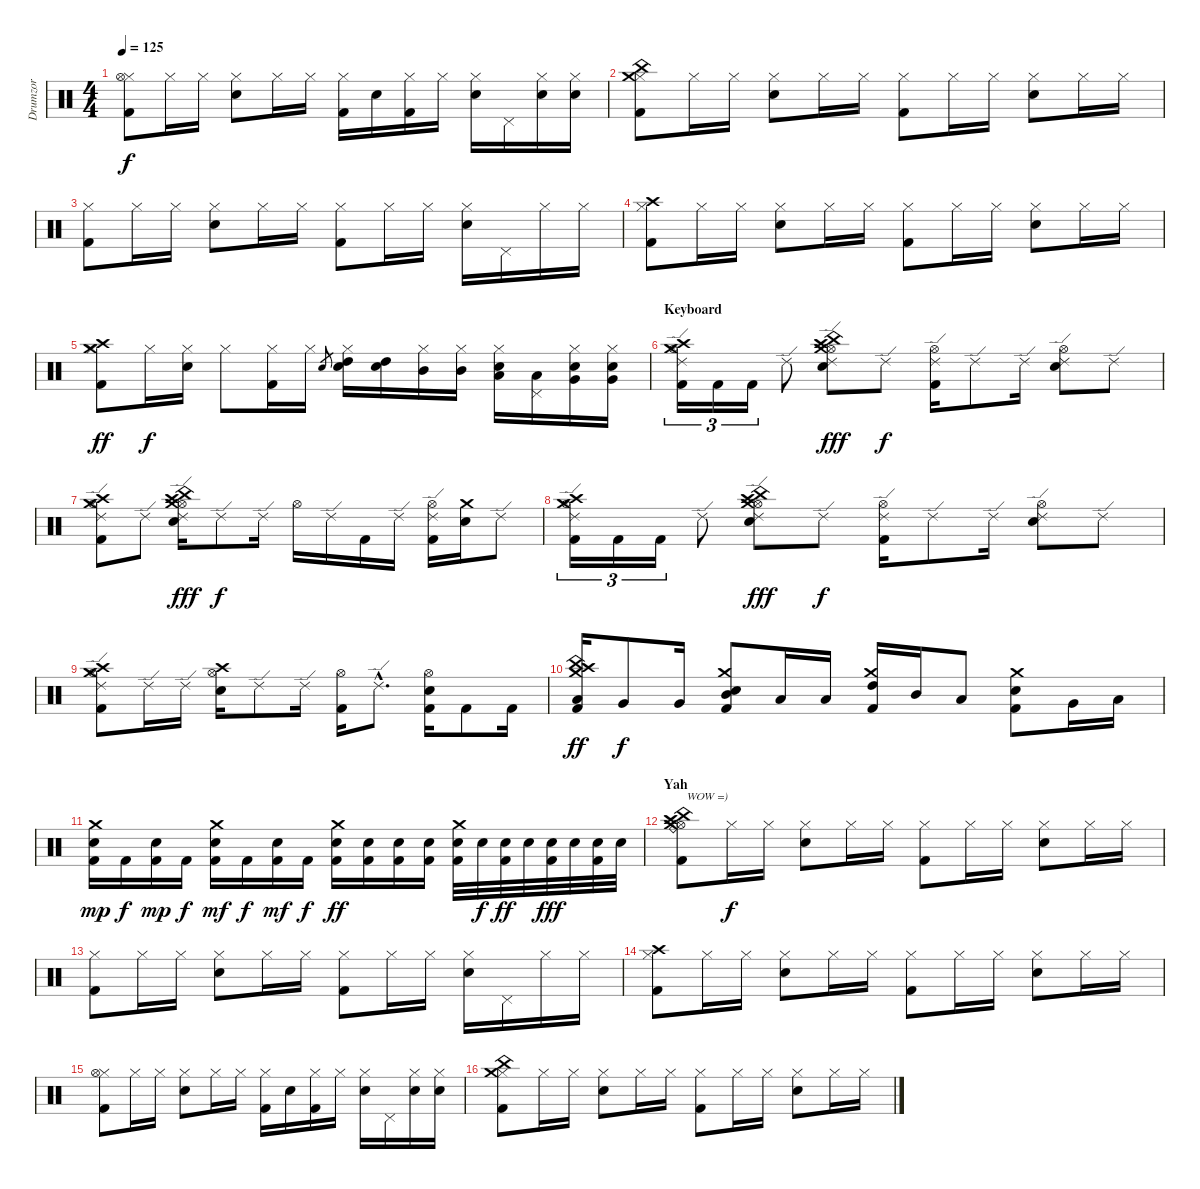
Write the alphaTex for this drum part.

\track ("Drumzor" "Drumzor") {instrument percussion}
\staff {score}
\articulation defaults
\ts (4 4)
\tempo 125
\clef neutral
\ks c
("Hi-Hat (closed)" "Hi-Hat (open)" "Kick (hit) 2").8{dy f} "Hi-Hat (closed)".16 "Hi-Hat (closed)".16 ("Hi-Hat (closed)" "Electric Snare (hit)").8 "Hi-Hat (closed)".16 "Hi-Hat (closed)".16 ("Hi-Hat (closed)" "Kick (hit) 2").16 "Electric Snare (hit)".16 ("Hi-Hat (closed)" "Kick (hit) 2").16 "Hi-Hat (closed)".16 ("Hi-Hat (closed)" "Electric Snare (hit)").16 "Pedal Hi-Hat (hit)".16 ("Hi-Hat (closed)" "Electric Snare (hit)").16 ("Hi-Hat (closed)" "Electric Snare (hit)").16 |
("Hi-Hat (closed)" "China (hit)" "Crash medium (hit)" "Kick (hit) 2").8 "Hi-Hat (closed)".16 "Hi-Hat (closed)".16 ("Hi-Hat (closed)" "Electric Snare (hit)").8 "Hi-Hat (closed)".16 "Hi-Hat (closed)".16 ("Hi-Hat (closed)" "Kick (hit) 2").8 "Hi-Hat (closed)".16 "Hi-Hat (closed)".16 ("Hi-Hat (closed)" "Electric Snare (hit)").8 "Hi-Hat (closed)".16 "Hi-Hat (closed)".16 |
("Hi-Hat (closed)" "Kick (hit) 2").8 "Hi-Hat (closed)".16 "Hi-Hat (closed)".16 ("Hi-Hat (closed)" "Electric Snare (hit)").8 "Hi-Hat (closed)".16 "Hi-Hat (closed)".16 ("Hi-Hat (closed)" "Kick (hit) 2").8 "Hi-Hat (closed)".16 "Hi-Hat (closed)".16 ("Hi-Hat (closed)" "Electric Snare (hit)").16 "Pedal Hi-Hat (hit)".16 "Hi-Hat (closed)".16 "Hi-Hat (closed)".16 |
("Hi-Hat (closed)" "Crash high (hit)" "Kick (hit) 2").8 "Hi-Hat (closed)".16 "Hi-Hat (closed)".16 ("Hi-Hat (closed)" "Electric Snare (hit)").8 "Hi-Hat (closed)".16 "Hi-Hat (closed)".16 ("Hi-Hat (closed)" "Kick (hit) 2").8 "Hi-Hat (closed)".16 "Hi-Hat (closed)".16 ("Hi-Hat (closed)" "Electric Snare (hit)").8 "Hi-Hat (closed)".16 "Hi-Hat (closed)".16 |
("Hi-Hat (closed)" "Crash medium (hit)" "Crash high (hit)" "Kick (hit) 2").8{dy ff} "Hi-Hat (closed)".16{dy f} ("Hi-Hat (closed)" "Electric Snare (hit)").16 "Hi-Hat (closed)".8 ("Hi-Hat (closed)" "Kick (hit) 2").16 "Hi-Hat (closed)".16 "Snare (hit) 2".8{gr} ("Hi-Hat (closed)" "High Tom (hit)" "Electric Snare (hit)").16 ("High Tom (hit)" "Electric Snare (hit)").16 ("Hi-Hat (closed)" "Mid Tom (hit)").16 ("Hi-Hat (closed)" "Mid Tom (hit)").16 ("Hi-Hat (closed)" "Low Tom (hit)" "Electric Snare (hit)").16 ("Pedal Hi-Hat (hit)" "Low Tom (hit)").16 ("Hi-Hat (closed)" "Very Low Tom (hit)" "Electric Snare (hit)").16 ("Hi-Hat (closed)" "Very Low Tom (hit)" "Electric Snare (hit)").16 |
\section ("" "Keyboard")
("Hi-Hat (open)" "Crash medium (hit)" "Crash high (hit)" "Ride (edge) 2" "Kick (hit) 2").16{tu (3 2)} "Kick (hit) 2".16{tu (3 2)} "Kick (hit) 2".16{tu (3 2)} "Ride (edge) 2".8 ("Hi-Hat (open)" "China (hit)" "Crash medium (hit)" "Ride (edge) 2" "Crash high (hit)" "Electric Snare (hit)").8{dy fff} "Ride (edge) 2".8{dy f} ("Hi-Hat (open)" "Ride (edge) 2" "Kick (hit) 2").16 "Ride (edge) 2".8 "Ride (edge) 2".16 ("Hi-Hat (open)" "Ride (edge) 2" "Electric Snare (hit)").8 "Ride (edge) 2".8 |
("Hi-Hat (open)" "Crash medium (hit)" "Crash high (hit)" "Ride (edge) 2" "Kick (hit) 2").8 "Ride (edge) 2".8 ("Hi-Hat (open)" "China (hit)" "Crash medium (hit)" "Ride (edge) 2" "Crash high (hit)" "Electric Snare (hit)").16{dy fff} "Ride (edge) 2".8{dy f} "Ride (edge) 2".16 "Hi-Hat (open)".16 "Ride (edge) 2".16 "Kick (hit) 2".16 "Ride (edge) 2".16 ("Hi-Hat (open)" "Ride (edge) 2" "Kick (hit) 2").16 ("Crash medium (hit)" "Electric Snare (hit)").16 "Ride (edge) 2".8 |
("Hi-Hat (open)" "Crash medium (hit)" "Crash high (hit)" "Ride (edge) 2" "Kick (hit) 2").16{tu (3 2)} "Kick (hit) 2".16{tu (3 2)} "Kick (hit) 2".16{tu (3 2)} "Ride (edge) 2".8 ("Hi-Hat (open)" "China (hit)" "Crash medium (hit)" "Ride (edge) 2" "Crash high (hit)" "Electric Snare (hit)").8{dy fff} "Ride (edge) 2".8{dy f} ("Hi-Hat (open)" "Ride (edge) 2" "Kick (hit) 2").16 "Ride (edge) 2".8 "Ride (edge) 2".16 ("Hi-Hat (open)" "Ride (edge) 2" "Electric Snare (hit)").8 "Ride (edge) 2".8 |
("Hi-Hat (open)" "Crash medium (hit)" "Crash high (hit)" "Ride (edge) 2" "Kick (hit) 2").8 "Ride (edge) 2".16 "Ride (edge) 2".16 ("Hi-Hat (open)" "Crash high (hit)" "Electric Snare (hit)").16 "Ride (edge) 2".8 "Ride (edge) 2".16 ("Hi-Hat (open)" "Kick (hit) 2").16 "Ride (edge) 2"{hac}.8{d} ("Hi-Hat (open)" "Electric Snare (hit)" "Kick (hit) 2").16 "Kick (hit) 2".8 "Kick (hit) 2".16 |
\section ("" "")
("China (hit)" "Crash medium (hit)" "Low Tom (hit)" "Crash high (hit)" "Kick (hit) 2").16{dy ff} "Very Low Tom (hit)".8{dy f} "Very Low Tom (hit)".16 ("Crash medium (hit)" "Mid Tom (hit)" "Electric Snare (hit)" "Kick (hit) 2").8 "Low Tom (hit)".16 "Low Tom (hit)".16 ("Crash medium (hit)" "High Tom (hit)" "Kick (hit) 2").16 "Mid Tom (hit)".16 "Low Tom (hit)".8 ("Crash medium (hit)" "Electric Snare (hit)" "Kick (hit) 2").8 "Very Low Tom (hit)".16 "Low Floor Tom (hit)".16 |
("Crash medium (hit)" "Electric Snare (hit)" "Kick (hit) 2").16{dy mp} "Kick (hit) 2".16{dy f} ("Electric Snare (hit)" "Kick (hit) 2").16{dy mp} "Kick (hit) 2".16{dy f} ("Crash medium (hit)" "Electric Snare (hit)" "Kick (hit) 2").16{dy mf} "Kick (hit) 2".16{dy f} ("Electric Snare (hit)" "Kick (hit) 2").16{dy mf} "Kick (hit) 2".16{dy f} ("Crash medium (hit)" "Electric Snare (hit)" "Kick (hit) 2").16{dy ff} ("Electric Snare (hit)" "Kick (hit) 2").16 ("Electric Snare (hit)" "Kick (hit) 2").16 ("Electric Snare (hit)" "Kick (hit) 2").16 ("Crash medium (hit)" "Electric Snare (hit)" "Kick (hit) 2").32 "Electric Snare (hit)".32{dy f} ("Electric Snare (hit)" "Kick (hit) 2").32{dy ff} "Electric Snare (hit)".32 ("Electric Snare (hit)" "Kick (hit) 2").32{dy fff} "Electric Snare (hit)".32 ("Electric Snare (hit)" "Kick (hit) 2").32 "Electric Snare (hit)".32 |
\section ("" "Yah")
("Hi-Hat (open)" "China (hit)" "Crash medium (hit)" "Crash high (hit)" "Ride (bell)" "Kick (hit) 2").8{txt "WOW =)" volume 14} "Hi-Hat (closed)".16{dy f} "Hi-Hat (closed)".16 ("Hi-Hat (closed)" "Electric Snare (hit)").8 "Hi-Hat (closed)".16 "Hi-Hat (closed)".16 ("Hi-Hat (closed)" "Kick (hit) 2").8 "Hi-Hat (closed)".16 "Hi-Hat (closed)".16 ("Hi-Hat (closed)" "Electric Snare (hit)").8 "Hi-Hat (closed)".16 "Hi-Hat (closed)".16 |
("Hi-Hat (closed)" "Kick (hit) 2").8 "Hi-Hat (closed)".16 "Hi-Hat (closed)".16 ("Hi-Hat (closed)" "Electric Snare (hit)").8 "Hi-Hat (closed)".16 "Hi-Hat (closed)".16 ("Hi-Hat (closed)" "Kick (hit) 2").8 "Hi-Hat (closed)".16 "Hi-Hat (closed)".16 ("Hi-Hat (closed)" "Electric Snare (hit)").16 "Pedal Hi-Hat (hit)".16 "Hi-Hat (closed)".16 "Hi-Hat (closed)".16 |
("Hi-Hat (closed)" "Crash high (hit)" "Kick (hit) 2").8 "Hi-Hat (closed)".16 "Hi-Hat (closed)".16 ("Hi-Hat (closed)" "Electric Snare (hit)").8 "Hi-Hat (closed)".16 "Hi-Hat (closed)".16 ("Hi-Hat (closed)" "Kick (hit) 2").8 "Hi-Hat (closed)".16 "Hi-Hat (closed)".16 ("Hi-Hat (closed)" "Electric Snare (hit)").8 "Hi-Hat (closed)".16 "Hi-Hat (closed)".16 |
("Hi-Hat (closed)" "Hi-Hat (open)" "Kick (hit) 2").8 "Hi-Hat (closed)".16 "Hi-Hat (closed)".16 ("Hi-Hat (closed)" "Electric Snare (hit)").8 "Hi-Hat (closed)".16 "Hi-Hat (closed)".16 ("Hi-Hat (closed)" "Kick (hit) 2").16 "Electric Snare (hit)".16 ("Hi-Hat (closed)" "Kick (hit) 2").16 "Hi-Hat (closed)".16 ("Hi-Hat (closed)" "Electric Snare (hit)").16 "Pedal Hi-Hat (hit)".16 ("Hi-Hat (closed)" "Electric Snare (hit)").16 ("Hi-Hat (closed)" "Electric Snare (hit)").16 |
("Hi-Hat (closed)" "China (hit)" "Crash medium (hit)" "Kick (hit) 2").8 "Hi-Hat (closed)".16 "Hi-Hat (closed)".16 ("Hi-Hat (closed)" "Electric Snare (hit)").8 "Hi-Hat (closed)".16 "Hi-Hat (closed)".16 ("Hi-Hat (closed)" "Kick (hit) 2").8 "Hi-Hat (closed)".16 "Hi-Hat (closed)".16 ("Hi-Hat (closed)" "Electric Snare (hit)").8 "Hi-Hat (closed)".16 "Hi-Hat (closed)".16
